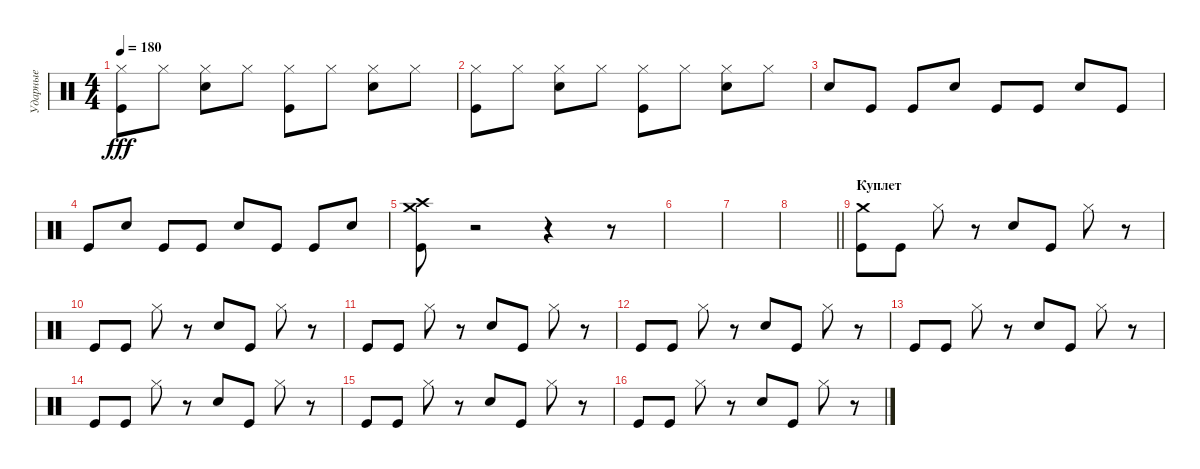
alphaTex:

\track ("Ударные" "Ударные") {instrument percussion}
\staff {score}
\articulation defaults
\ts (4 4)
\tempo 180
\clef neutral
\ks c
("Hi-Hat (closed)" "Kick (hit)").8{dy fff} "Hi-Hat (closed)".8 ("Hi-Hat (closed)" "Electric Snare (hit)").8 "Hi-Hat (closed)".8 ("Hi-Hat (closed)" "Kick (hit)").8 "Hi-Hat (closed)".8 ("Hi-Hat (closed)" "Electric Snare (hit)").8 "Hi-Hat (closed)".8 |
("Hi-Hat (closed)" "Kick (hit)").8 "Hi-Hat (closed)".8 ("Hi-Hat (closed)" "Electric Snare (hit)").8 "Hi-Hat (closed)".8 ("Hi-Hat (closed)" "Kick (hit)").8 "Hi-Hat (closed)".8 ("Hi-Hat (closed)" "Electric Snare (hit)").8 "Hi-Hat (closed)".8 |
"Electric Snare (hit)".8 "Kick (hit)".8 "Kick (hit)".8 "Electric Snare (hit)".8 "Kick (hit)".8 "Kick (hit)".8 "Electric Snare (hit)".8 "Kick (hit)".8 |
"Kick (hit)".8 "Electric Snare (hit)".8 "Kick (hit)".8 "Kick (hit)".8 "Electric Snare (hit)".8 "Kick (hit)".8 "Kick (hit)".8 "Electric Snare (hit)".8 |
("Crash high (hit)" "Kick (hit)" "Crash medium (hit)").8 r.2 r.4 r.8 |
|
|
\barLineRight lightlight
|
\section ("" "Куплет")
("Crash medium (hit)" "Kick (hit)").8 "Kick (hit)".8 "Hi-Hat (closed)".8 r.8 "Electric Snare (hit)".8 "Kick (hit)".8 "Hi-Hat (closed)".8 r.8 |
"Kick (hit)".8 "Kick (hit)".8 "Hi-Hat (closed)".8 r.8 "Electric Snare (hit)".8 "Kick (hit)".8 "Hi-Hat (closed)".8 r.8 |
"Kick (hit)".8 "Kick (hit)".8 "Hi-Hat (closed)".8 r.8 "Electric Snare (hit)".8 "Kick (hit)".8 "Hi-Hat (closed)".8 r.8 |
"Kick (hit)".8 "Kick (hit)".8 "Hi-Hat (closed)".8 r.8 "Electric Snare (hit)".8 "Kick (hit)".8 "Hi-Hat (closed)".8 r.8 |
"Kick (hit)".8 "Kick (hit)".8 "Hi-Hat (closed)".8 r.8 "Electric Snare (hit)".8 "Kick (hit)".8 "Hi-Hat (closed)".8 r.8 |
"Kick (hit)".8 "Kick (hit)".8 "Hi-Hat (closed)".8 r.8 "Electric Snare (hit)".8 "Kick (hit)".8 "Hi-Hat (closed)".8 r.8 |
"Kick (hit)".8 "Kick (hit)".8 "Hi-Hat (closed)".8 r.8 "Electric Snare (hit)".8 "Kick (hit)".8 "Hi-Hat (closed)".8 r.8 |
"Kick (hit)".8 "Kick (hit)".8 "Hi-Hat (closed)".8 r.8 "Electric Snare (hit)".8 "Kick (hit)".8 "Hi-Hat (closed)".8 r.8
